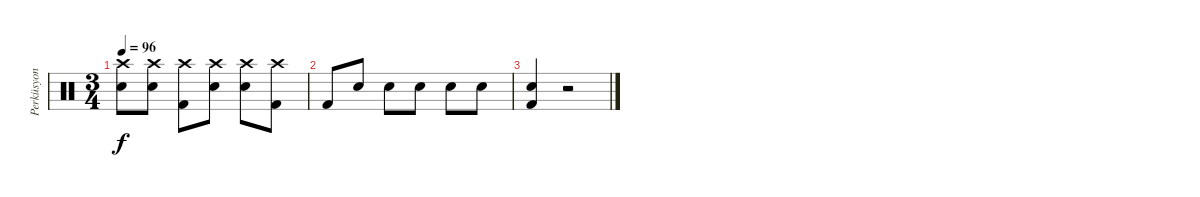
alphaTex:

\track ("Perküsyon" "Perküsyon") {instrument percussion}
\staff {score}
\articulation defaults
\ts (3 4)
\tempo 96
\clef neutral
\ks c
("Snare (hit) 2" "Crash high (hit)").8{dy f} ("Snare (hit) 2" "Crash high (hit)").8 ("Kick (hit) 2" "Crash high (hit)").8 ("Snare (hit) 2" "Crash high (hit)").8 ("Snare (hit) 2" "Crash high (hit)").8 ("Kick (hit) 2" "Crash high (hit)").8 |
"Kick (hit) 2".8 "Snare (hit) 2".8 "Snare (hit) 2".8 "Snare (hit) 2".8 "Snare (hit) 2".8 "Snare (hit) 2".8 |
("Kick (hit) 2" "Snare (hit) 2").4 r.2
